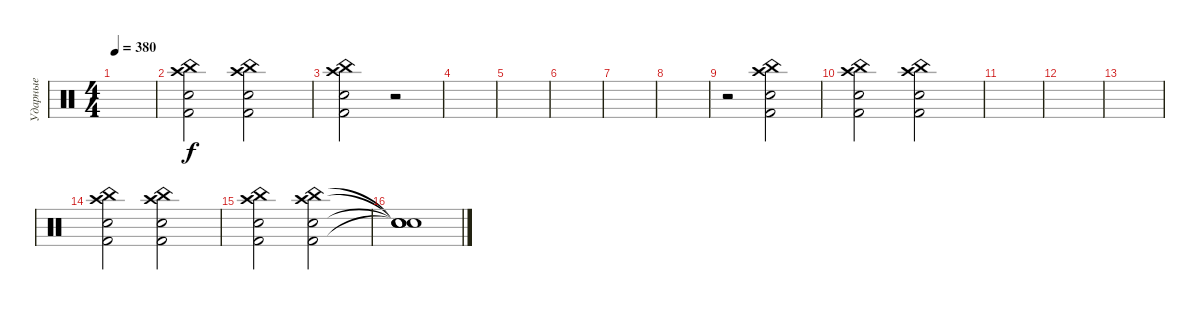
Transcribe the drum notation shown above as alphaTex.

\track ("Ударные" "Ударные") {instrument percussion}
\staff {score}
\articulation defaults
\ts (4 4)
\tempo 380
\clef neutral
\ks c
|
("China (hit)" "Crash high (hit)" "Kick (hit) 2" "Electric Snare (hit)").2 ("Kick (hit) 2" "Electric Snare (hit)" "Crash high (hit)" "China (hit)").2 |
("China (hit)" "Crash high (hit)" "Kick (hit) 2" "Electric Snare (hit)").2 r.2 |
|
|
|
|
|
r.2 ("Kick (hit) 2" "Electric Snare (hit)" "Crash high (hit)" "China (hit)").2 |
("China (hit)" "Crash high (hit)" "Kick (hit) 2" "Electric Snare (hit)").2 ("Electric Snare (hit)" "Kick (hit) 2" "Crash high (hit)" "China (hit)").2 |
|
|
|
("China (hit)" "Crash high (hit)" "Kick (hit) 2" "Electric Snare (hit)").2 ("Kick (hit) 2" "Electric Snare (hit)" "Crash high (hit)" "China (hit)").2 |
("China (hit)" "Crash high (hit)" "Kick (hit) 2" "Electric Snare (hit)").2 ("Electric Snare (hit)" "Kick (hit) 2" "Crash high (hit)" "China (hit)").2 |
("Snare (hit)"{t} "Snare (hit)"{t} "Snare (hit)"{t} "Snare (hit)"{t}).1
